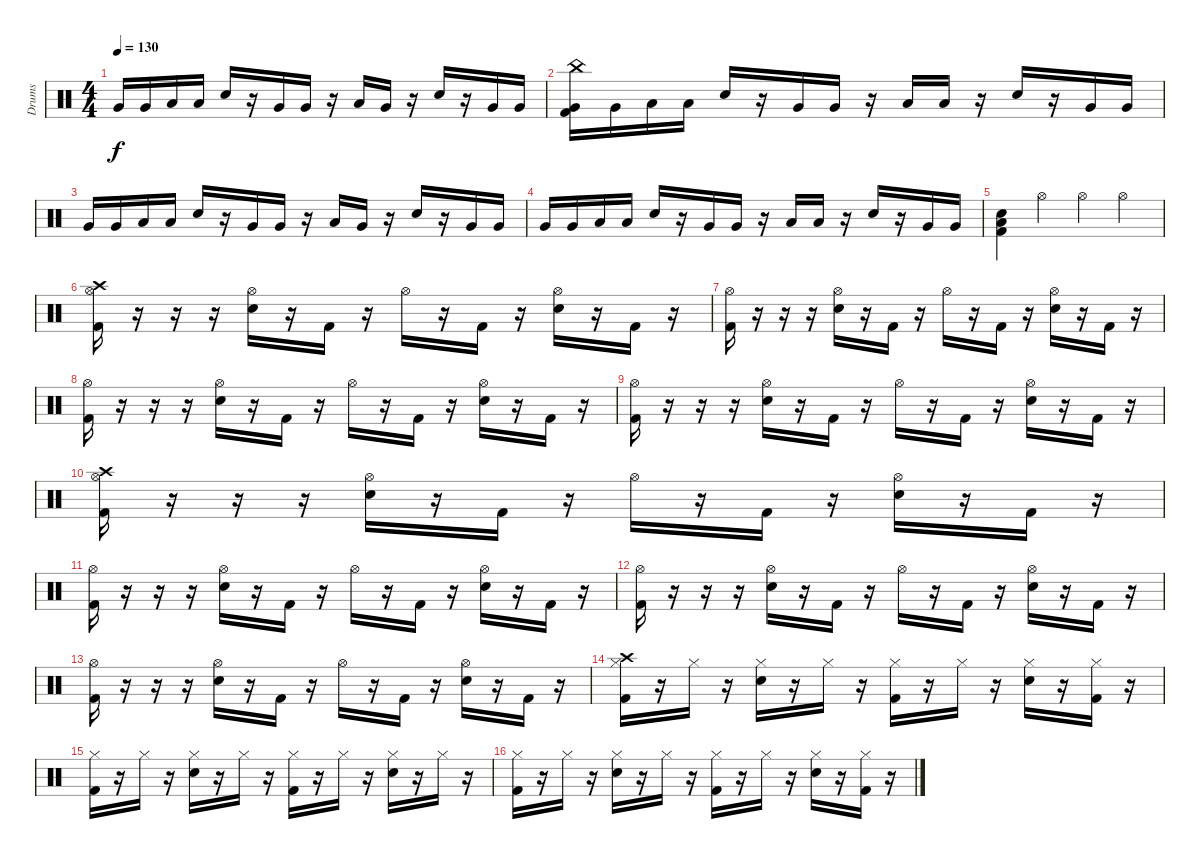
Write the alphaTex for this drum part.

\track ("Drums" "Drums") {instrument percussion}
\staff {score}
\articulation defaults
\ts (4 4)
\tempo 130
\clef neutral
\ks c "Very Low Tom (hit)".16{dy f} "Very Low Tom (hit)".16 "Low Floor Tom (hit)".16 "Low Floor Tom (hit)".16 "Electric Snare (hit)".16
r.16 "Very Low Tom (hit)".16 "Very Low Tom (hit)".16 r.16 "Low Floor Tom (hit)".16 "Very Low Tom (hit)".16 r.16 "Electric Snare (hit)".16 r.16 "Very Low Tom (hit)".16 "Very Low Tom (hit)".16 |
("Kick (hit) 2" "Very Low Tom (hit)" "China (hit)").16 "Very Low Tom (hit)".16 "Low Floor Tom (hit)".16 "Low Floor Tom (hit)".16 "Electric Snare (hit)".16 r.16 "Very Low Tom (hit)".16 "Very Low Tom (hit)".16 r.16 "Low Floor Tom (hit)".16 "Low Floor Tom (hit)".16 r.16 "Electric Snare (hit)".16 r.16 "Very Low Tom (hit)".16 "Very Low Tom (hit)".16 |
"Very Low Tom (hit)".16 "Very Low Tom (hit)".16 "Low Floor Tom (hit)".16 "Low Floor Tom (hit)".16 "Electric Snare (hit)".16 r.16 "Very Low Tom (hit)".16 "Very Low Tom (hit)".16 r.16 "Low Floor Tom (hit)".16 "Very Low Tom (hit)".16 r.16 "Electric Snare (hit)".16 r.16 "Very Low Tom (hit)".16 "Very Low Tom (hit)".16 |
"Very Low Tom (hit)".16 "Very Low Tom (hit)".16 "Low Floor Tom (hit)".16 "Low Floor Tom (hit)".16 "Electric Snare (hit)".16 r.16 "Very Low Tom (hit)".16 "Very Low Tom (hit)".16 r.16 "Low Floor Tom (hit)".16 "Low Floor Tom (hit)".16 r.16 "Electric Snare (hit)".16 r.16 "Very Low Tom (hit)".16 "Very Low Tom (hit)".16 |
("Kick (hit) 2" "Low Tom (hit)" "Electric Snare (hit)").4 "Hi-Hat (open)".4 "Hi-Hat (open)".4 "Hi-Hat (open)".4 |
("Kick (hit) 2" "Crash high (hit)" "Hi-Hat (open)").16 r.16 r.16 r.16 ("Electric Snare (hit)" "Hi-Hat (open)").16 r.16 "Kick (hit) 2".16 r.16 "Hi-Hat (open)".16 r.16 "Kick (hit) 2".16 r.16 ("Electric Snare (hit)" "Hi-Hat (open)").16 r.16 "Kick (hit) 2".16 r.16 |
("Kick (hit) 2" "Hi-Hat (open)").16 r.16 r.16 r.16 ("Electric Snare (hit)" "Hi-Hat (open)").16 r.16 "Kick (hit) 2".16 r.16 "Hi-Hat (open)".16 r.16 "Kick (hit) 2".16 r.16 ("Electric Snare (hit)" "Hi-Hat (open)").16 r.16 "Kick (hit) 2".16 r.16 |
("Kick (hit) 2" "Hi-Hat (open)").16 r.16 r.16 r.16 ("Electric Snare (hit)" "Hi-Hat (open)").16 r.16 "Kick (hit) 2".16 r.16 "Hi-Hat (open)".16 r.16 "Kick (hit) 2".16 r.16 ("Electric Snare (hit)" "Hi-Hat (open)").16 r.16 "Kick (hit) 2".16 r.16 |
("Kick (hit) 2" "Hi-Hat (open)").16 r.16 r.16 r.16 ("Electric Snare (hit)" "Hi-Hat (open)").16 r.16 "Kick (hit) 2".16 r.16 "Hi-Hat (open)".16 r.16 "Kick (hit) 2".16 r.16 ("Electric Snare (hit)" "Hi-Hat (open)").16 r.16 "Kick (hit) 2".16 r.16 |
("Kick (hit) 2" "Crash high (hit)" "Hi-Hat (open)").16 r.16 r.16 r.16 ("Electric Snare (hit)" "Hi-Hat (open)").16 r.16 "Kick (hit) 2".16 r.16 "Hi-Hat (open)".16 r.16 "Kick (hit) 2".16 r.16 ("Electric Snare (hit)" "Hi-Hat (open)").16 r.16 "Kick (hit) 2".16 r.16 |
("Kick (hit) 2" "Hi-Hat (open)").16 r.16 r.16 r.16 ("Electric Snare (hit)" "Hi-Hat (open)").16 r.16 "Kick (hit) 2".16 r.16 "Hi-Hat (open)".16 r.16 "Kick (hit) 2".16 r.16 ("Electric Snare (hit)" "Hi-Hat (open)").16 r.16 "Kick (hit) 2".16 r.16 |
("Kick (hit) 2" "Hi-Hat (open)").16 r.16 r.16 r.16 ("Electric Snare (hit)" "Hi-Hat (open)").16 r.16 "Kick (hit) 2".16 r.16 "Hi-Hat (open)".16 r.16 "Kick (hit) 2".16 r.16 ("Electric Snare (hit)" "Hi-Hat (open)").16 r.16 "Kick (hit) 2".16 r.16 |
("Kick (hit) 2" "Hi-Hat (open)").16 r.16 r.16 r.16 ("Electric Snare (hit)" "Hi-Hat (open)").16 r.16 "Kick (hit) 2".16 r.16 "Hi-Hat (open)".16 r.16 "Kick (hit) 2".16 r.16 ("Electric Snare (hit)" "Hi-Hat (open)").16 r.16 "Kick (hit) 2".16 r.16 |
("Kick (hit) 2" "Crash high (hit)" "Hi-Hat (closed)").16 r.16 "Hi-Hat (closed)".16 r.16 ("Electric Snare (hit)" "Hi-Hat (closed)").16 r.16 "Hi-Hat (closed)".16 r.16 ("Kick (hit) 2" "Hi-Hat (closed)").16 r.16 "Hi-Hat (closed)".16 r.16 ("Electric Snare (hit)" "Hi-Hat (closed)").16 r.16 ("Kick (hit) 2" "Hi-Hat (closed)").16 r.16 |
("Kick (hit) 2" "Hi-Hat (closed)").16 r.16 "Hi-Hat (closed)".16 r.16 ("Electric Snare (hit)" "Hi-Hat (closed)").16 r.16 "Hi-Hat (closed)".16 r.16 ("Kick (hit) 2" "Hi-Hat (closed)").16 r.16 "Hi-Hat (closed)".16 r.16 ("Electric Snare (hit)" "Hi-Hat (closed)").16 r.16 "Hi-Hat (closed)".16 r.16 |
("Kick (hit) 2" "Hi-Hat (closed)").16 r.16 "Hi-Hat (closed)".16 r.16 ("Electric Snare (hit)" "Hi-Hat (closed)").16 r.16 "Hi-Hat (closed)".16 r.16 ("Kick (hit) 2" "Hi-Hat (closed)").16 r.16 "Hi-Hat (closed)".16 r.16 ("Electric Snare (hit)" "Hi-Hat (closed)").16 r.16 ("Kick (hit) 2" "Hi-Hat (closed)").16 r.16
